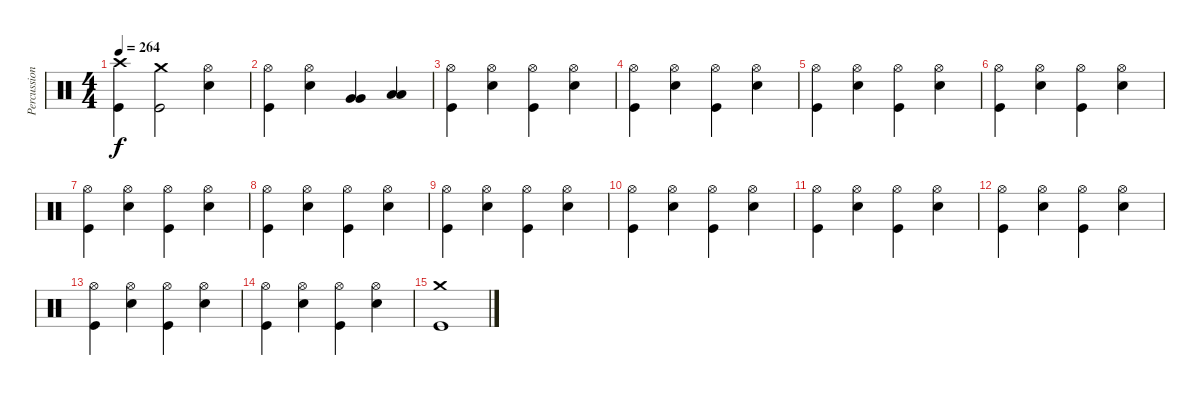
\track ("Percussion" "Percussion") {instrument percussion}
\staff {score}
\articulation defaults
\ts (4 4)
\tempo 264
\clef neutral
\ks c
("Crash high (hit)" "Kick (hit)").4{dy f} ("Crash medium (hit)" "Kick (hit)").2 ("Hi-Hat (open)" "Snare (hit) 2").4 |
("Hi-Hat (open)" "Kick (hit)").4 ("Hi-Hat (open)" "Snare (hit) 2").4 ("Very Low Tom (hit)" "Very Low Tom (hit)").4 ("Low Floor Tom (hit)" "Low Floor Tom (hit)").4 |
("Hi-Hat (open)" "Kick (hit)").4 ("Hi-Hat (open)" "Snare (hit) 2").4 ("Hi-Hat (open)" "Kick (hit)").4 ("Hi-Hat (open)" "Snare (hit) 2").4 |
("Hi-Hat (open)" "Kick (hit)").4 ("Hi-Hat (open)" "Snare (hit) 2").4 ("Hi-Hat (open)" "Kick (hit)").4 ("Hi-Hat (open)" "Snare (hit) 2").4 |
("Hi-Hat (open)" "Kick (hit)").4 ("Hi-Hat (open)" "Snare (hit) 2").4 ("Hi-Hat (open)" "Kick (hit)").4 ("Hi-Hat (open)" "Snare (hit) 2").4 |
("Hi-Hat (open)" "Kick (hit)").4 ("Hi-Hat (open)" "Snare (hit) 2").4 ("Hi-Hat (open)" "Kick (hit)").4 ("Hi-Hat (open)" "Snare (hit) 2").4 |
("Hi-Hat (open)" "Kick (hit)").4 ("Hi-Hat (open)" "Snare (hit) 2").4 ("Hi-Hat (open)" "Kick (hit)").4 ("Hi-Hat (open)" "Snare (hit) 2").4 |
("Hi-Hat (open)" "Kick (hit)").4 ("Hi-Hat (open)" "Snare (hit) 2").4 ("Hi-Hat (open)" "Kick (hit)").4 ("Hi-Hat (open)" "Snare (hit) 2").4 |
("Hi-Hat (open)" "Kick (hit)").4 ("Hi-Hat (open)" "Snare (hit) 2").4 ("Hi-Hat (open)" "Kick (hit)").4 ("Hi-Hat (open)" "Snare (hit) 2").4 |
("Hi-Hat (open)" "Kick (hit)").4 ("Hi-Hat (open)" "Snare (hit) 2").4 ("Hi-Hat (open)" "Kick (hit)").4 ("Hi-Hat (open)" "Snare (hit) 2").4 |
("Hi-Hat (open)" "Kick (hit)").4 ("Hi-Hat (open)" "Snare (hit) 2").4 ("Hi-Hat (open)" "Kick (hit)").4 ("Hi-Hat (open)" "Snare (hit) 2").4 |
("Hi-Hat (open)" "Kick (hit)").4 ("Hi-Hat (open)" "Snare (hit) 2").4 ("Hi-Hat (open)" "Kick (hit)").4 ("Hi-Hat (open)" "Snare (hit) 2").4 |
("Hi-Hat (open)" "Kick (hit)").4 ("Hi-Hat (open)" "Snare (hit) 2").4 ("Hi-Hat (open)" "Kick (hit)").4 ("Hi-Hat (open)" "Snare (hit) 2").4 |
("Hi-Hat (open)" "Kick (hit)").4 ("Hi-Hat (open)" "Snare (hit) 2").4 ("Hi-Hat (open)" "Kick (hit)").4 ("Hi-Hat (open)" "Snare (hit) 2").4 |
("Crash medium (hit)" "Kick (hit)").1
